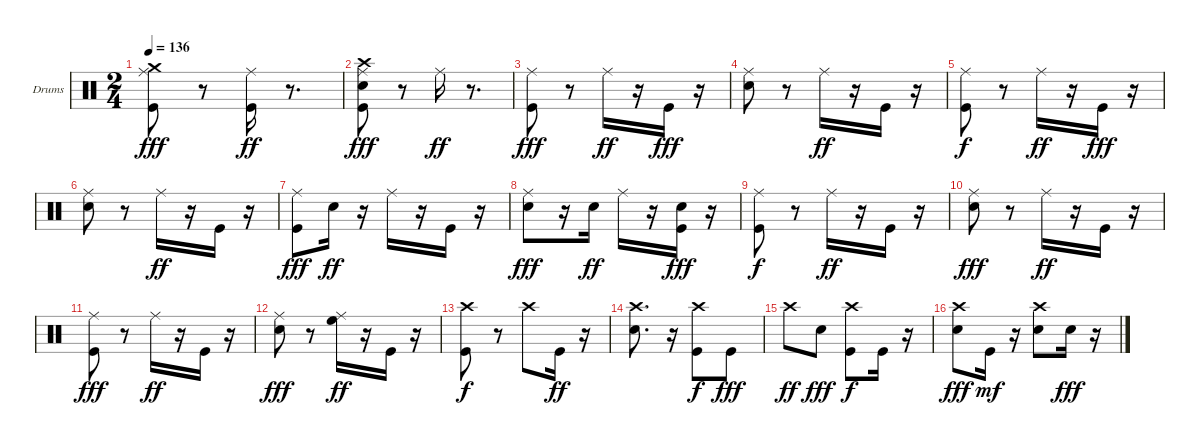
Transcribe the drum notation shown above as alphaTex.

\bracketExtendMode groupsimilarinstruments
\firstSystemTrackNameOrientation horizontal
\otherSystemsTrackNameOrientation horizontal
\track ("Drumkit" "Drums") {solo instrument percussion}
\staff {score}
\articulation defaults
\ts (2 4)
\tempo 136
\clef neutral
\ks c
("Crash medium (hit)" "Ride (middle)" "Kick (hit)").8{dy fff} r.8 ("Ride (middle)" "Kick (hit)").16{dy ff} r.8{d} |
("Crash high (hit)" "Ride (middle)" "Kick (hit)" "Snare (hit) 2").8{dy fff} r.8 "Ride (middle)".16{dy ff} r.8{d} |
("Ride (middle)" "Kick (hit)").8{dy fff} r.8 "Ride (middle)".16{dy ff} r.16 "Kick (hit)".16{dy fff} r.16 |
("Ride (middle)" "Snare (hit) 2").8 r.8 "Ride (middle)".16{dy ff} r.16 "Kick (hit)".16 r.16 |
("Ride (middle)" "Kick (hit)").8{dy f} r.8 "Ride (middle)".16{dy ff} r.16 "Kick (hit)".16{dy fff} r.16 |
("Ride (middle)" "Snare (hit) 2").8 r.8 "Ride (middle)".16{dy ff} r.16 "Kick (hit)".16 r.16 |
("Ride (middle)" "Kick (hit)").8{dy fff} "Snare (hit) 2".16{dy ff} r.16 "Ride (middle)".16 r.16 "Kick (hit)".16 r.16 |
("Ride (middle)" "Snare (hit) 2").8{dy fff} r.16 "Snare (hit) 2".16{dy ff} "Ride (middle)".16 r.16 ("Snare (hit) 2" "Kick (hit)").16{dy fff} r.16 |
("Ride (middle)" "Kick (hit)").8{dy f} r.8 "Ride (middle)".16{dy ff} r.16 "Kick (hit)".16 r.16 |
("Ride (middle)" "Snare (hit) 2").8{dy fff} r.8 "Ride (middle)".16{dy ff} r.16 "Kick (hit)".16 r.16 |
("Ride (middle)" "Kick (hit)").8{dy fff} r.8 "Ride (middle)".16{dy ff} r.16 "Kick (hit)".16 r.16 |
("Ride (middle)" "Snare (hit) 2").8{dy fff} r.8 ("High Floor Tom (hit)" "Ride (middle)").16{dy ff} r.16 "Kick (hit)".16 r.16 |
("Crash high (hit)" "Kick (hit)").8{dy f} r.8 "Crash high (hit)".8 "Kick (hit)".16{dy ff} r.16 |
("Crash high (hit)" "Snare (hit) 2").8{d} r.16 ("Kick (hit)" "Crash high (hit)").8{dy f} "Kick (hit)".8{dy fff} |
"Crash high (hit)".8{dy ff} "Snare (hit) 2".8{dy fff} ("Crash high (hit)" "Kick (hit)").8{dy f} "Kick (hit)".16 r.16 |
("Crash high (hit)" "Snare (hit) 2").8{dy fff} "Kick (hit)".16{dy mf} r.16 ("Crash high (hit)" "Snare (hit) 2").8 "Snare (hit) 2".16{dy fff} r.16
